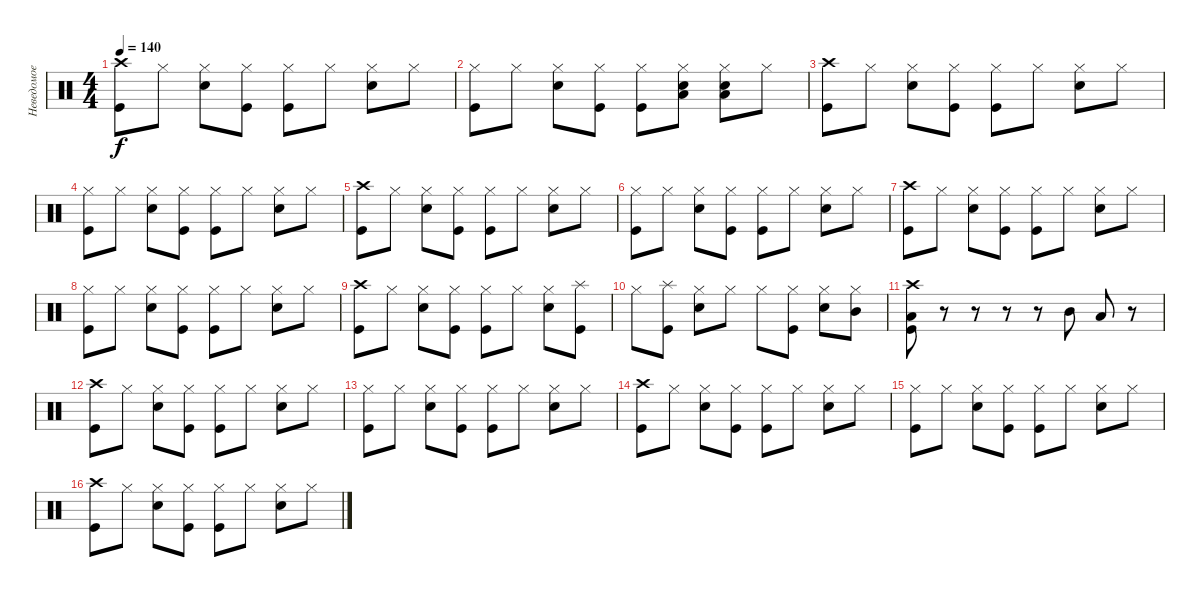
\track ("Неведомое существо" "Неведомое ") {instrument percussion}
\staff {score}
\articulation defaults
\ts (4 4)
\tempo 140
\clef neutral
\ks c
("Crash high (hit)" "Kick (hit)").8{dy f} "Hi-Hat (closed)".8 ("Hi-Hat (closed)" "Snare (hit) 2").8 ("Hi-Hat (closed)" "Kick (hit)").8 ("Hi-Hat (closed)" "Kick (hit)").8 "Hi-Hat (closed)".8 ("Hi-Hat (closed)" "Snare (hit) 2").8 "Hi-Hat (closed)".8 |
("Hi-Hat (closed)" "Kick (hit)").8 "Hi-Hat (closed)".8 ("Hi-Hat (closed)" "Snare (hit) 2").8 ("Hi-Hat (closed)" "Kick (hit)").8 ("Hi-Hat (closed)" "Kick (hit)").8 ("Hi-Hat (closed)" "Snare (hit) 2" "Low Tom (hit)").8 ("Hi-Hat (closed)" "Snare (hit) 2" "Low Floor Tom (hit)").8 "Hi-Hat (closed)".8 |
("Crash high (hit)" "Kick (hit)").8 "Hi-Hat (closed)".8 ("Hi-Hat (closed)" "Snare (hit) 2").8 ("Hi-Hat (closed)" "Kick (hit)").8 ("Hi-Hat (closed)" "Kick (hit)").8 "Hi-Hat (closed)".8 ("Hi-Hat (closed)" "Snare (hit) 2").8 "Hi-Hat (closed)".8 |
("Hi-Hat (closed)" "Kick (hit)").8 "Hi-Hat (closed)".8 ("Hi-Hat (closed)" "Snare (hit) 2").8 ("Hi-Hat (closed)" "Kick (hit)").8 ("Hi-Hat (closed)" "Kick (hit)").8 "Hi-Hat (closed)".8 ("Hi-Hat (closed)" "Snare (hit) 2").8 "Hi-Hat (closed)".8 |
("Crash high (hit)" "Kick (hit)").8 "Hi-Hat (closed)".8 ("Hi-Hat (closed)" "Snare (hit) 2").8 ("Hi-Hat (closed)" "Kick (hit)").8 ("Hi-Hat (closed)" "Kick (hit)").8 "Hi-Hat (closed)".8 ("Hi-Hat (closed)" "Snare (hit) 2").8 "Hi-Hat (closed)".8 |
("Hi-Hat (closed)" "Kick (hit)").8 "Hi-Hat (closed)".8 ("Hi-Hat (closed)" "Snare (hit) 2").8 ("Hi-Hat (closed)" "Kick (hit)").8 ("Hi-Hat (closed)" "Kick (hit)").8 "Hi-Hat (closed)".8 ("Hi-Hat (closed)" "Snare (hit) 2").8 "Hi-Hat (closed)".8 |
("Crash high (hit)" "Kick (hit)").8 "Hi-Hat (closed)".8 ("Hi-Hat (closed)" "Snare (hit) 2").8 ("Hi-Hat (closed)" "Kick (hit)").8 ("Hi-Hat (closed)" "Kick (hit)").8 "Hi-Hat (closed)".8 ("Hi-Hat (closed)" "Snare (hit) 2").8 "Hi-Hat (closed)".8 |
("Hi-Hat (closed)" "Kick (hit)").8 "Hi-Hat (closed)".8 ("Hi-Hat (closed)" "Snare (hit) 2").8 ("Hi-Hat (closed)" "Kick (hit)").8 ("Hi-Hat (closed)" "Kick (hit)").8 "Hi-Hat (closed)".8 ("Hi-Hat (closed)" "Snare (hit) 2").8 "Hi-Hat (closed)".8 |
("Crash high (hit)" "Kick (hit)").8 "Hi-Hat (closed)".8 ("Hi-Hat (closed)" "Snare (hit) 2").8 ("Hi-Hat (closed)" "Kick (hit)").8 ("Hi-Hat (closed)" "Kick (hit)").8 "Hi-Hat (closed)".8 ("Hi-Hat (closed)" "Snare (hit) 2").8 ("Splash (hit)" "Kick (hit)").8 |
"Hi-Hat (closed)".8 ("Splash (hit)" "Kick (hit)").8 ("Hi-Hat (closed)" "Snare (hit) 2").8 "Hi-Hat (closed)".8 "Hi-Hat (closed)".8 ("Hi-Hat (closed)" "Kick (hit)").8 ("Hi-Hat (closed)" "Snare (hit) 2").8 ("Hi-Hat (closed)" "Mid Tom (hit)").8 |
("Crash high (hit)" "Low Tom (hit)" "Kick (hit)").8 r.8 r.8 r.8 r.8 "Mid Tom (hit)".8 "Low Tom (hit)".8 r.8 |
("Crash high (hit)" "Kick (hit)").8 "Hi-Hat (closed)".8 ("Hi-Hat (closed)" "Snare (hit) 2").8 ("Hi-Hat (closed)" "Kick (hit)").8 ("Hi-Hat (closed)" "Kick (hit)").8 "Hi-Hat (closed)".8 ("Hi-Hat (closed)" "Snare (hit) 2").8 "Hi-Hat (closed)".8 |
("Hi-Hat (closed)" "Kick (hit)").8 "Hi-Hat (closed)".8 ("Hi-Hat (closed)" "Snare (hit) 2").8 ("Hi-Hat (closed)" "Kick (hit)").8 ("Hi-Hat (closed)" "Kick (hit)").8 "Hi-Hat (closed)".8 ("Hi-Hat (closed)" "Snare (hit) 2").8 "Hi-Hat (closed)".8 |
("Crash high (hit)" "Kick (hit)").8 "Hi-Hat (closed)".8 ("Hi-Hat (closed)" "Snare (hit) 2").8 ("Hi-Hat (closed)" "Kick (hit)").8 ("Hi-Hat (closed)" "Kick (hit)").8 "Hi-Hat (closed)".8 ("Hi-Hat (closed)" "Snare (hit) 2").8 "Hi-Hat (closed)".8 |
("Hi-Hat (closed)" "Kick (hit)").8 "Hi-Hat (closed)".8 ("Hi-Hat (closed)" "Snare (hit) 2").8 ("Hi-Hat (closed)" "Kick (hit)").8 ("Hi-Hat (closed)" "Kick (hit)").8 "Hi-Hat (closed)".8 ("Hi-Hat (closed)" "Snare (hit) 2").8 "Hi-Hat (closed)".8 |
("Crash high (hit)" "Kick (hit)").8 "Hi-Hat (closed)".8 ("Hi-Hat (closed)" "Snare (hit) 2").8 ("Hi-Hat (closed)" "Kick (hit)").8 ("Hi-Hat (closed)" "Kick (hit)").8 "Hi-Hat (closed)".8 ("Hi-Hat (closed)" "Snare (hit) 2").8 "Hi-Hat (closed)".8
